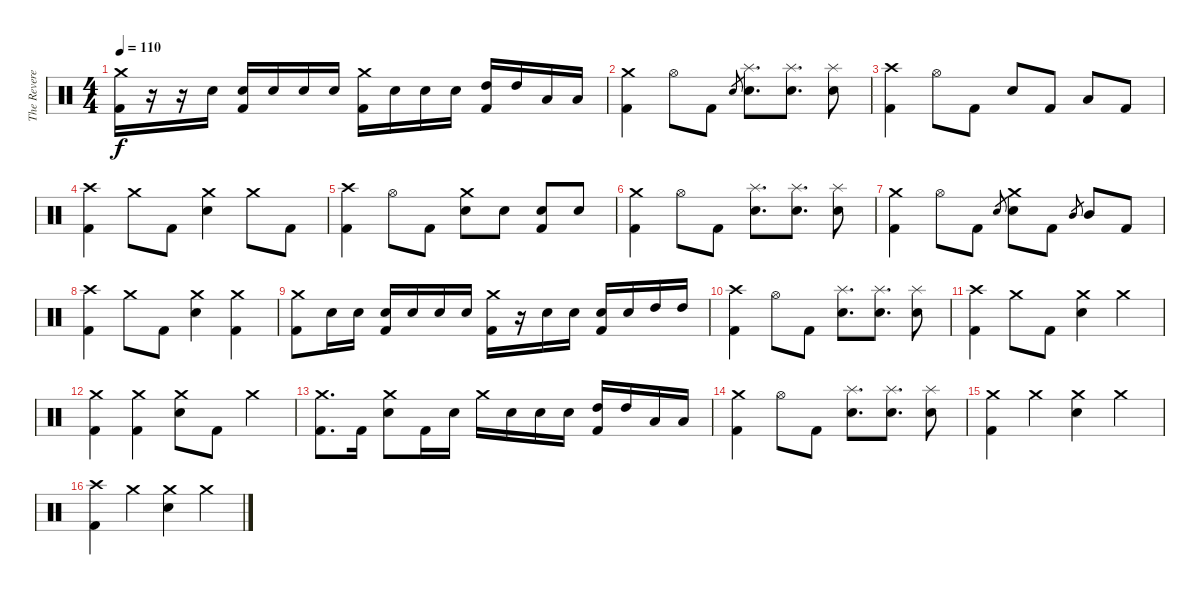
\track ("The Reverend" "The Revere") {instrument percussion}
\staff {score}
\articulation defaults
\ts (4 4)
\tempo 110
\clef neutral
\ks c
("Crash medium (hit)" "Kick (hit) 2").16{dy f} r.16 r.16 "Electric Snare (hit)".16 ("Electric Snare (hit)" "Kick (hit) 2").16 "Electric Snare (hit)".16 "Electric Snare (hit)".16 "Electric Snare (hit)".16 ("Crash medium (hit)" "Kick (hit) 2").16 "Electric Snare (hit)".16 "Electric Snare (hit)".16 "Electric Snare (hit)".16 ("High Tom (hit)" "Kick (hit) 2").16 "High Tom (hit)".16 "Low Tom (hit)".16 "Low Tom (hit)".16 |
("Crash medium (hit)" "Kick (hit) 2").4 "Hi-Hat (open)".8 "Kick (hit) 2".8 "Electric Snare (hit)".8{gr} ("Splash (hit)" "Electric Snare (hit)").8{d} ("Splash (hit)" "Electric Snare (hit)").8{d} ("Splash (hit)" "Electric Snare (hit)").8 |
("Crash high (hit)" "Kick (hit) 2").4 "Hi-Hat (open)".8 "Kick (hit) 2".8 "Electric Snare (hit)".8 "Kick (hit) 2".8 "Low Tom (hit)".8 "Kick (hit) 2".8 |
("Crash high (hit)" "Kick (hit) 2").4 "Crash medium (hit)".8 "Kick (hit) 2".8 ("Crash medium (hit)" "Electric Snare (hit)").4 "Crash medium (hit)".8 "Kick (hit) 2".8 |
("Crash high (hit)" "Kick (hit) 2").4 "Hi-Hat (open)".8 "Kick (hit) 2".8 ("Crash medium (hit)" "Electric Snare (hit)").8 "Electric Snare (hit)".8 ("Electric Snare (hit)" "Kick (hit) 2").8 "Electric Snare (hit)".8 |
("Crash medium (hit)" "Kick (hit) 2").4 "Hi-Hat (open)".8 "Kick (hit) 2".8 ("Splash (hit)" "Electric Snare (hit)").8{d} ("Splash (hit)" "Electric Snare (hit)").8{d} ("Splash (hit)" "Electric Snare (hit)").8 |
("Crash medium (hit)" "Kick (hit) 2").4 "Hi-Hat (open)".8 "Kick (hit) 2".8 "Electric Snare (hit)".8{gr} ("Crash medium (hit)" "Electric Snare (hit)").8 "Kick (hit) 2".8 "Mid Tom (hit)".8{gr} "Mid Tom (hit)".8 "Kick (hit) 2".8 |
("Crash high (hit)" "Kick (hit) 2").4 "Crash medium (hit)".8 "Kick (hit) 2".8 ("Crash medium (hit)" "Electric Snare (hit)").4 ("Crash medium (hit)" "Kick (hit) 2").4 |
("Crash medium (hit)" "Kick (hit) 2").8 "Electric Snare (hit)".16 "Electric Snare (hit)".16 ("Electric Snare (hit)" "Kick (hit) 2").16 "Electric Snare (hit)".16 "Electric Snare (hit)".16 "Electric Snare (hit)".16 ("Crash medium (hit)" "Kick (hit) 2").16 r.16 "Electric Snare (hit)".16 "Electric Snare (hit)".16 ("Electric Snare (hit)" "Kick (hit) 2").16 "Electric Snare (hit)".16 "High Tom (hit)".16 "High Tom (hit)".16 |
("Crash high (hit)" "Kick (hit) 2").4 "Hi-Hat (open)".8 "Kick (hit) 2".8 ("Splash (hit)" "Electric Snare (hit)").8{d} ("Splash (hit)" "Electric Snare (hit)").8{d} ("Splash (hit)" "Electric Snare (hit)").8 |
("Crash high (hit)" "Kick (hit) 2").4 "Crash medium (hit)".8 "Kick (hit) 2".8 ("Crash medium (hit)" "Electric Snare (hit)").4 "Crash medium (hit)".4 |
("Crash medium (hit)" "Kick (hit) 2").4 ("Crash medium (hit)" "Kick (hit) 2").4 ("Crash medium (hit)" "Electric Snare (hit)").8 "Kick (hit) 2".8 "Crash medium (hit)".4 |
("Crash medium (hit)" "Kick (hit) 2").8{d} "Kick (hit) 2".16 ("Crash medium (hit)" "Electric Snare (hit)").8 "Kick (hit) 2".16 "Electric Snare (hit)".16 "Crash medium (hit)".16 "Electric Snare (hit)".16 "Electric Snare (hit)".16 "Electric Snare (hit)".16 ("High Tom (hit)" "Kick (hit) 2").16 "High Tom (hit)".16 "Low Tom (hit)".16 "Low Tom (hit)".16 |
("Crash medium (hit)" "Kick (hit) 2").4 "Hi-Hat (open)".8 "Kick (hit) 2".8 ("Splash (hit)" "Electric Snare (hit)").8{d} ("Splash (hit)" "Electric Snare (hit)").8{d} ("Splash (hit)" "Electric Snare (hit)").8 |
("Crash medium (hit)" "Kick (hit) 2").4 "Crash medium (hit)".4 ("Crash medium (hit)" "Electric Snare (hit)").4 "Crash medium (hit)".4 |
("Crash high (hit)" "Kick (hit) 2").4 "Crash medium (hit)".4 ("Crash medium (hit)" "Electric Snare (hit)").4 "Crash medium (hit)".4
